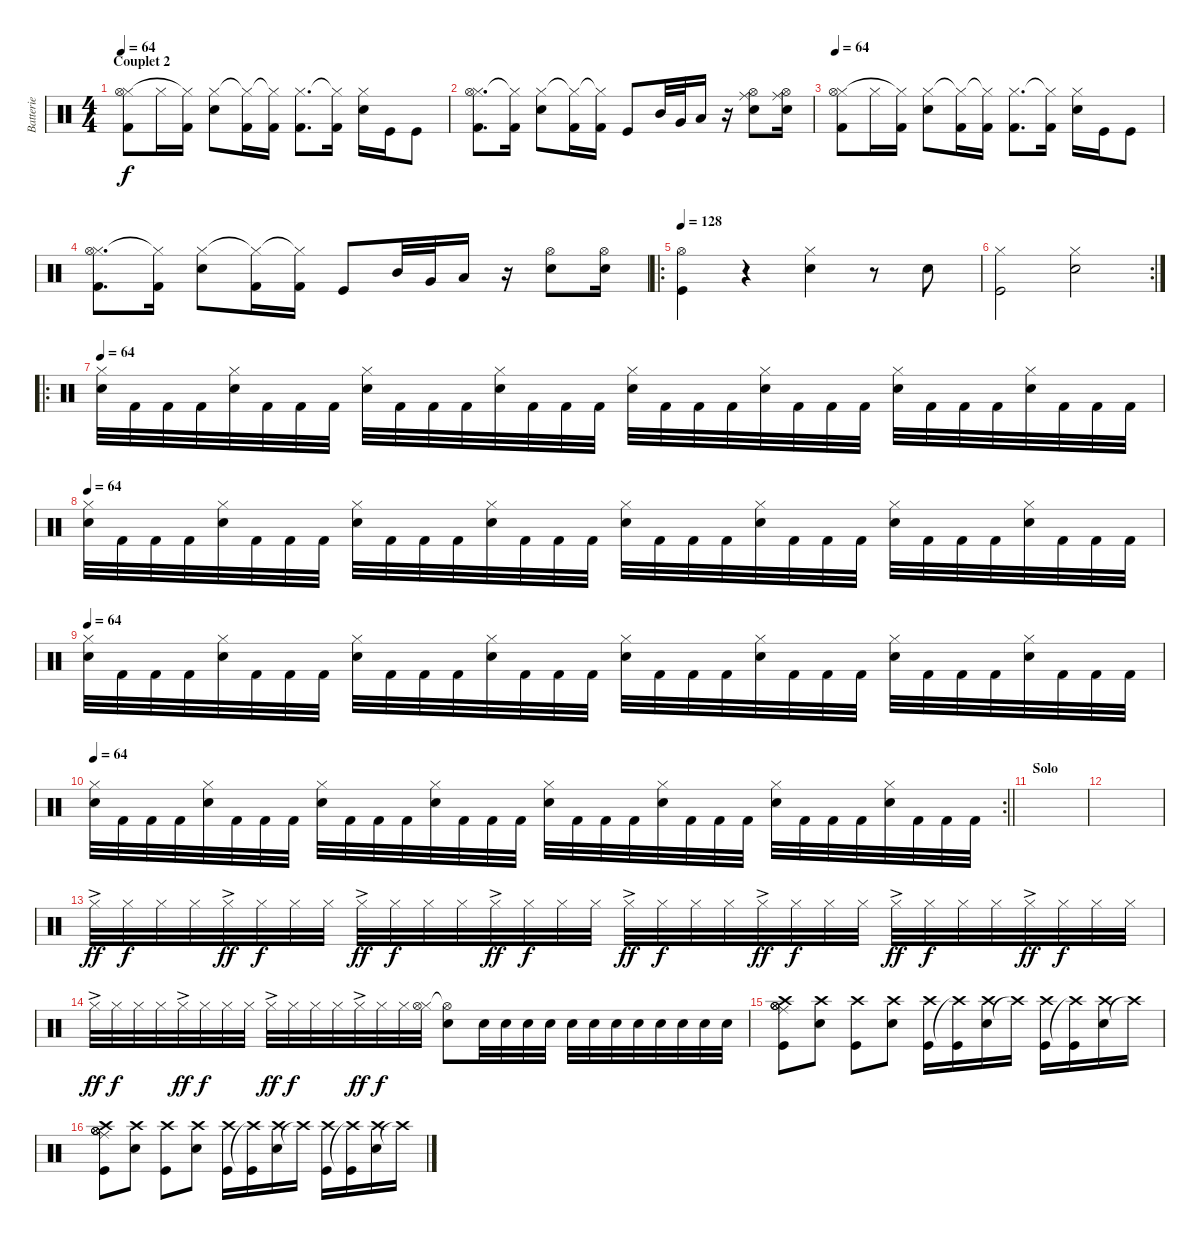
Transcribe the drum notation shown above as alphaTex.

\track ("Batterie" "Batterie") {instrument percussion}
\staff {score}
\articulation defaults
\ts (4 4)
\section ("" "Couplet 2")
\tempo 64
\clef neutral
\ks c
("Kick (hit) 2" "Hi-Hat (closed)" "Hi-Hat (open)").8{dy f} "Hi-Hat (closed)".16 ("Kick (hit) 2" "Hi-Hat (closed)"{t}).16 ("Electric Snare (hit)" "Hi-Hat (closed)").8 ("Kick (hit) 2" "Hi-Hat (closed)"{t}).16 ("Kick (hit) 2" "Hi-Hat (closed)"{t}).16 ("Kick (hit) 2" "Hi-Hat (closed)").8{d} ("Kick (hit) 2" "Hi-Hat (closed)"{t}).16 ("Electric Snare (hit)" "Hi-Hat (closed)").16 "Kick (hit)".16 "Kick (hit)".8 |
("Kick (hit) 2" "Hi-Hat (closed)" "Hi-Hat (open)").8{d} ("Kick (hit) 2" "Hi-Hat (closed)"{t}).16 ("Electric Snare (hit)" "Hi-Hat (closed)").8 ("Kick (hit) 2" "Hi-Hat (closed)"{t}).16 ("Kick (hit) 2" "Hi-Hat (closed)"{t}).16 "Kick (hit)".8 "Mid Tom (hit)".32 "Very Low Tom (hit)".32 "Low Tom (hit)".16 r.16 ("Snare (hit) 2" "Ride (middle)" "Hi-Hat (open)").8 ("Snare (hit) 2" "Ride (middle)" "Hi-Hat (open)").16 |
\tempo 64
("Kick (hit) 2" "Hi-Hat (closed)" "Hi-Hat (open)").8 "Hi-Hat (closed)".16 ("Kick (hit) 2" "Hi-Hat (closed)"{t}).16 ("Electric Snare (hit)" "Hi-Hat (closed)").8 ("Kick (hit) 2" "Hi-Hat (closed)"{t}).16 ("Kick (hit) 2" "Hi-Hat (closed)"{t}).16 ("Kick (hit) 2" "Hi-Hat (closed)").8{d} ("Kick (hit) 2" "Hi-Hat (closed)"{t}).16 ("Electric Snare (hit)" "Hi-Hat (closed)").16 "Kick (hit)".16 "Kick (hit)".8 |
("Kick (hit) 2" "Hi-Hat (closed)" "Hi-Hat (open)").8{d} ("Kick (hit) 2" "Hi-Hat (closed)"{t}).16 ("Electric Snare (hit)" "Hi-Hat (closed)").8 ("Kick (hit) 2" "Hi-Hat (closed)"{t}).16 ("Kick (hit) 2" "Hi-Hat (closed)"{t}).16 "Kick (hit)".8 "Mid Tom (hit)".32 "Very Low Tom (hit)".32 "Low Tom (hit)".16 r.16 ("Snare (hit) 2" "Hi-Hat (open)").8 ("Snare (hit) 2" "Hi-Hat (open)").16 |
\ro
\tempo 128
("Kick (hit)" "Hi-Hat (open)").4 r.4 ("Snare (hit) 2" "Hi-Hat (closed)").4 r.8 "Snare (hit) 2".8 |
\rc 2
("Kick (hit)" "Hi-Hat (closed)").2 ("Snare (hit) 2" "Hi-Hat (closed)").2 |
\ro
\tempo 64
("Electric Snare (hit)" "Hi-Hat (closed)").32 "Kick (hit) 2".32 "Kick (hit) 2".32 "Kick (hit) 2".32 ("Hi-Hat (closed)" "Electric Snare (hit)").32 "Kick (hit) 2".32 "Kick (hit) 2".32 "Kick (hit) 2".32 ("Electric Snare (hit)" "Hi-Hat (closed)").32 "Kick (hit) 2".32 "Kick (hit) 2".32 "Kick (hit) 2".32 ("Electric Snare (hit)" "Hi-Hat (closed)").32 "Kick (hit) 2".32 "Kick (hit) 2".32 "Kick (hit) 2".32 ("Electric Snare (hit)" "Hi-Hat (closed)").32 "Kick (hit) 2".32 "Kick (hit) 2".32 "Kick (hit) 2".32 ("Hi-Hat (closed)" "Electric Snare (hit)").32 "Kick (hit) 2".32 "Kick (hit) 2".32 "Kick (hit) 2".32 ("Electric Snare (hit)" "Hi-Hat (closed)").32 "Kick (hit) 2".32 "Kick (hit) 2".32 "Kick (hit) 2".32 ("Electric Snare (hit)" "Hi-Hat (closed)").32 "Kick (hit) 2".32 "Kick (hit) 2".32 "Kick (hit) 2".32 |
\tempo 64
("Electric Snare (hit)" "Hi-Hat (closed)").32 "Kick (hit) 2".32 "Kick (hit) 2".32 "Kick (hit) 2".32 ("Hi-Hat (closed)" "Electric Snare (hit)").32 "Kick (hit) 2".32 "Kick (hit) 2".32 "Kick (hit) 2".32 ("Electric Snare (hit)" "Hi-Hat (closed)").32 "Kick (hit) 2".32 "Kick (hit) 2".32 "Kick (hit) 2".32 ("Electric Snare (hit)" "Hi-Hat (closed)").32 "Kick (hit) 2".32 "Kick (hit) 2".32 "Kick (hit) 2".32 ("Electric Snare (hit)" "Hi-Hat (closed)").32 "Kick (hit) 2".32 "Kick (hit) 2".32 "Kick (hit) 2".32 ("Hi-Hat (closed)" "Electric Snare (hit)").32 "Kick (hit) 2".32 "Kick (hit) 2".32 "Kick (hit) 2".32 ("Electric Snare (hit)" "Hi-Hat (closed)").32 "Kick (hit) 2".32 "Kick (hit) 2".32 "Kick (hit) 2".32 ("Electric Snare (hit)" "Hi-Hat (closed)").32 "Kick (hit) 2".32 "Kick (hit) 2".32 "Kick (hit) 2".32 |
\tempo 64
("Electric Snare (hit)" "Hi-Hat (closed)").32 "Kick (hit) 2".32 "Kick (hit) 2".32 "Kick (hit) 2".32 ("Hi-Hat (closed)" "Electric Snare (hit)").32 "Kick (hit) 2".32 "Kick (hit) 2".32 "Kick (hit) 2".32 ("Electric Snare (hit)" "Hi-Hat (closed)").32 "Kick (hit) 2".32 "Kick (hit) 2".32 "Kick (hit) 2".32 ("Electric Snare (hit)" "Hi-Hat (closed)").32 "Kick (hit) 2".32 "Kick (hit) 2".32 "Kick (hit) 2".32 ("Electric Snare (hit)" "Hi-Hat (closed)").32 "Kick (hit) 2".32 "Kick (hit) 2".32 "Kick (hit) 2".32 ("Hi-Hat (closed)" "Electric Snare (hit)").32 "Kick (hit) 2".32 "Kick (hit) 2".32 "Kick (hit) 2".32 ("Electric Snare (hit)" "Hi-Hat (closed)").32 "Kick (hit) 2".32 "Kick (hit) 2".32 "Kick (hit) 2".32 ("Electric Snare (hit)" "Hi-Hat (closed)").32 "Kick (hit) 2".32 "Kick (hit) 2".32 "Kick (hit) 2".32 |
\rc 2
\tempo 64
\barLineRight lightlight
("Electric Snare (hit)" "Hi-Hat (closed)").32 "Kick (hit) 2".32 "Kick (hit) 2".32 "Kick (hit) 2".32 ("Hi-Hat (closed)" "Electric Snare (hit)").32 "Kick (hit) 2".32 "Kick (hit) 2".32 "Kick (hit) 2".32 ("Electric Snare (hit)" "Hi-Hat (closed)").32 "Kick (hit) 2".32 "Kick (hit) 2".32 "Kick (hit) 2".32 ("Electric Snare (hit)" "Hi-Hat (closed)").32 "Kick (hit) 2".32 "Kick (hit) 2".32 "Kick (hit) 2".32 ("Electric Snare (hit)" "Hi-Hat (closed)").32 "Kick (hit) 2".32 "Kick (hit) 2".32 "Kick (hit) 2".32 ("Hi-Hat (closed)" "Electric Snare (hit)").32 "Kick (hit) 2".32 "Kick (hit) 2".32 "Kick (hit) 2".32 ("Electric Snare (hit)" "Hi-Hat (closed)").32 "Kick (hit) 2".32 "Kick (hit) 2".32 "Kick (hit) 2".32 ("Electric Snare (hit)" "Hi-Hat (closed)").32 "Kick (hit) 2".32 "Kick (hit) 2".32 "Kick (hit) 2".32 |
\section ("" "Solo")
|
|
"Hi-Hat (closed)"{ac}.32{dy ff} "Hi-Hat (closed)".32{dy f} "Hi-Hat (closed)".32 "Hi-Hat (closed)".32 "Hi-Hat (closed)"{ac}.32{dy ff} "Hi-Hat (closed)".32{dy f} "Hi-Hat (closed)".32 "Hi-Hat (closed)".32 "Hi-Hat (closed)"{ac}.32{dy ff} "Hi-Hat (closed)".32{dy f} "Hi-Hat (closed)".32 "Hi-Hat (closed)".32 "Hi-Hat (closed)"{ac}.32{dy ff} "Hi-Hat (closed)".32{dy f} "Hi-Hat (closed)".32 "Hi-Hat (closed)".32 "Hi-Hat (closed)"{ac}.32{dy ff} "Hi-Hat (closed)".32{dy f} "Hi-Hat (closed)".32 "Hi-Hat (closed)".32 "Hi-Hat (closed)"{ac}.32{dy ff} "Hi-Hat (closed)".32{dy f} "Hi-Hat (closed)".32 "Hi-Hat (closed)".32 "Hi-Hat (closed)"{ac}.32{dy ff} "Hi-Hat (closed)".32{dy f} "Hi-Hat (closed)".32 "Hi-Hat (closed)".32 "Hi-Hat (closed)"{ac}.32{dy ff} "Hi-Hat (closed)".32{dy f} "Hi-Hat (closed)".32 "Hi-Hat (closed)".32 |
"Hi-Hat (closed)"{ac}.32{dy ff} "Hi-Hat (closed)".32{dy f} "Hi-Hat (closed)".32 "Hi-Hat (closed)".32 "Hi-Hat (closed)"{ac}.32{dy ff} "Hi-Hat (closed)".32{dy f} "Hi-Hat (closed)".32 "Hi-Hat (closed)".32 "Hi-Hat (closed)"{ac}.32{dy ff} "Hi-Hat (closed)".32{dy f} "Hi-Hat (closed)".32 "Hi-Hat (closed)".32 "Hi-Hat (closed)"{ac}.32{dy ff} "Hi-Hat (closed)".32{dy f} "Hi-Hat (closed)".32 ("Hi-Hat (closed)" "Hi-Hat (open)").32 ("Snare (hit) 2" "Hi-Hat (open)"{t}).8 "Snare (hit) 2".32 "Snare (hit) 2".32 "Snare (hit) 2".32 "Snare (hit) 2".32 "Snare (hit) 2".32 "Snare (hit) 2".32 "Snare (hit) 2".32 "Snare (hit) 2".32 "Snare (hit) 2".32 "Snare (hit) 2".32 "Snare (hit) 2".32 "Snare (hit) 2".32 |
("Kick (hit)" "Hi-Hat (open)" "Hi-Hat (open)" "Hi-Hat (open)" "Ride (middle)" "Crash high (hit)").8 ("Snare (hit) 2" "Crash high (hit)").8 ("Kick (hit)" "Crash high (hit)").8 ("Snare (hit) 2" "Crash high (hit)").8 ("Kick (hit)" "Crash high (hit)").16 ("Crash high (hit)"{t} "Kick (hit)").16 ("Snare (hit) 2" "Crash high (hit)").16 "Crash high (hit)"{t}.16 ("Kick (hit)" "Crash high (hit)").16 ("Crash high (hit)"{t} "Kick (hit)").16 ("Snare (hit) 2" "Crash high (hit)").16 "Crash high (hit)"{t}.16 |
("Kick (hit)" "Hi-Hat (open)" "Hi-Hat (open)" "Hi-Hat (open)" "Ride (middle)" "Crash high (hit)").8 ("Snare (hit) 2" "Crash high (hit)").8 ("Kick (hit)" "Crash high (hit)").8 ("Snare (hit) 2" "Crash high (hit)").8 ("Kick (hit)" "Crash high (hit)").16 ("Crash high (hit)"{t} "Kick (hit)").16 ("Snare (hit) 2" "Crash high (hit)").16 "Crash high (hit)"{t}.16 ("Kick (hit)" "Crash high (hit)").16 ("Crash high (hit)"{t} "Kick (hit)").16 ("Snare (hit) 2" "Crash high (hit)").16 "Crash high (hit)"{t}.16
